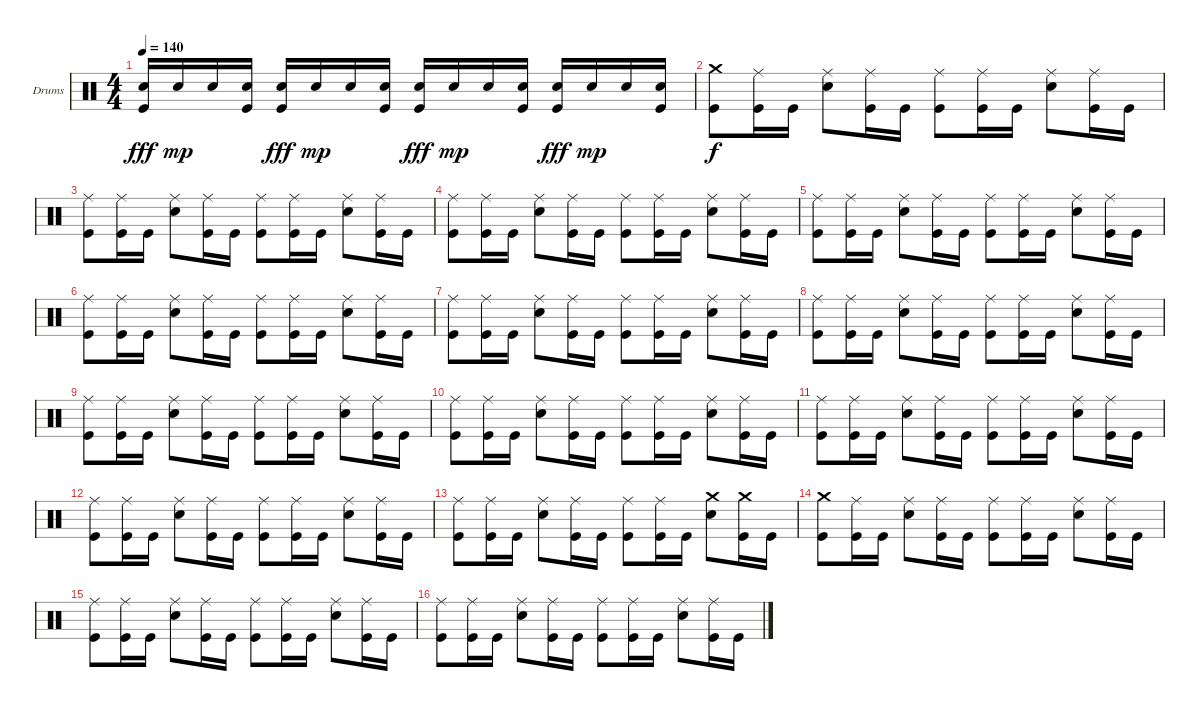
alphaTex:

\defaultSystemsLayout 4
\bracketExtendMode nobrackets
\firstSystemTrackNameOrientation horizontal
\otherSystemsTrackNameOrientation horizontal
\track ("Ударные" "Drums") {instrument percussion}
\staff {score}
\articulation defaults
\ts (4 4)
\tempo 140
\clef neutral
\ks c
("Snare (hit) 2" "Kick (hit)").16{dy fff} "Snare (hit) 2".16{dy mp} "Snare (hit) 2".16 ("Snare (hit) 2" "Kick (hit)").16 ("Snare (hit) 2" "Kick (hit)").16{dy fff} "Snare (hit) 2".16{dy mp} "Snare (hit) 2".16 ("Snare (hit) 2" "Kick (hit)").16 ("Snare (hit) 2" "Kick (hit)").16{dy fff} "Snare (hit) 2".16{dy mp} "Snare (hit) 2".16 ("Snare (hit) 2" "Kick (hit)").16 ("Snare (hit) 2" "Kick (hit)").16{dy fff} "Snare (hit) 2".16{dy mp} "Snare (hit) 2".16 ("Snare (hit) 2" "Kick (hit)").16 |
("Crash medium (hit)" "Kick (hit)").8{dy f} ("Ride (middle)" "Kick (hit)").16 "Kick (hit)".16 ("Ride (middle)" "Snare (hit) 2").8 ("Ride (middle)" "Kick (hit)").16 "Kick (hit)".16 ("Ride (middle)" "Kick (hit)").8 ("Ride (middle)" "Kick (hit)").16 "Kick (hit)".16 ("Ride (middle)" "Snare (hit) 2").8 ("Ride (middle)" "Kick (hit)").16 "Kick (hit)".16 |
("Ride (middle)" "Kick (hit)").8 ("Ride (middle)" "Kick (hit)").16 "Kick (hit)".16 ("Ride (middle)" "Snare (hit) 2").8 ("Ride (middle)" "Kick (hit)").16 "Kick (hit)".16 ("Ride (middle)" "Kick (hit)").8 ("Ride (middle)" "Kick (hit)").16 "Kick (hit)".16 ("Ride (middle)" "Snare (hit) 2").8 ("Ride (middle)" "Kick (hit)").16 "Kick (hit)".16 |
("Ride (middle)" "Kick (hit)").8 ("Ride (middle)" "Kick (hit)").16 "Kick (hit)".16 ("Ride (middle)" "Snare (hit) 2").8 ("Ride (middle)" "Kick (hit)").16 "Kick (hit)".16 ("Ride (middle)" "Kick (hit)").8 ("Ride (middle)" "Kick (hit)").16 "Kick (hit)".16 ("Ride (middle)" "Snare (hit) 2").8 ("Ride (middle)" "Kick (hit)").16 "Kick (hit)".16 |
("Ride (middle)" "Kick (hit)").8 ("Ride (middle)" "Kick (hit)").16 "Kick (hit)".16 ("Ride (middle)" "Snare (hit) 2").8 ("Ride (middle)" "Kick (hit)").16 "Kick (hit)".16 ("Ride (middle)" "Kick (hit)").8 ("Ride (middle)" "Kick (hit)").16 "Kick (hit)".16 ("Ride (middle)" "Snare (hit) 2").8 ("Ride (middle)" "Kick (hit)").16 "Kick (hit)".16 |
("Ride (middle)" "Kick (hit)").8 ("Ride (middle)" "Kick (hit)").16 "Kick (hit)".16 ("Ride (middle)" "Snare (hit) 2").8 ("Ride (middle)" "Kick (hit)").16 "Kick (hit)".16 ("Ride (middle)" "Kick (hit)").8 ("Ride (middle)" "Kick (hit)").16 "Kick (hit)".16 ("Ride (middle)" "Snare (hit) 2").8 ("Ride (middle)" "Kick (hit)").16 "Kick (hit)".16 |
("Ride (middle)" "Kick (hit)").8 ("Ride (middle)" "Kick (hit)").16 "Kick (hit)".16 ("Ride (middle)" "Snare (hit) 2").8 ("Ride (middle)" "Kick (hit)").16 "Kick (hit)".16 ("Ride (middle)" "Kick (hit)").8 ("Ride (middle)" "Kick (hit)").16 "Kick (hit)".16 ("Ride (middle)" "Snare (hit) 2").8 ("Ride (middle)" "Kick (hit)").16 "Kick (hit)".16 |
("Ride (middle)" "Kick (hit)").8 ("Ride (middle)" "Kick (hit)").16 "Kick (hit)".16 ("Ride (middle)" "Snare (hit) 2").8 ("Ride (middle)" "Kick (hit)").16 "Kick (hit)".16 ("Ride (middle)" "Kick (hit)").8 ("Ride (middle)" "Kick (hit)").16 "Kick (hit)".16 ("Ride (middle)" "Snare (hit) 2").8 ("Ride (middle)" "Kick (hit)").16 "Kick (hit)".16 |
("Ride (middle)" "Kick (hit)").8 ("Ride (middle)" "Kick (hit)").16 "Kick (hit)".16 ("Ride (middle)" "Snare (hit) 2").8 ("Ride (middle)" "Kick (hit)").16 "Kick (hit)".16 ("Ride (middle)" "Kick (hit)").8 ("Ride (middle)" "Kick (hit)").16 "Kick (hit)".16 ("Ride (middle)" "Snare (hit) 2").8 ("Ride (middle)" "Kick (hit)").16 "Kick (hit)".16 |
("Ride (middle)" "Kick (hit)").8 ("Ride (middle)" "Kick (hit)").16 "Kick (hit)".16 ("Ride (middle)" "Snare (hit) 2").8 ("Ride (middle)" "Kick (hit)").16 "Kick (hit)".16 ("Ride (middle)" "Kick (hit)").8 ("Ride (middle)" "Kick (hit)").16 "Kick (hit)".16 ("Ride (middle)" "Snare (hit) 2").8 ("Ride (middle)" "Kick (hit)").16 "Kick (hit)".16 |
("Ride (middle)" "Kick (hit)").8 ("Ride (middle)" "Kick (hit)").16 "Kick (hit)".16 ("Ride (middle)" "Snare (hit) 2").8 ("Ride (middle)" "Kick (hit)").16 "Kick (hit)".16 ("Ride (middle)" "Kick (hit)").8 ("Ride (middle)" "Kick (hit)").16 "Kick (hit)".16 ("Ride (middle)" "Snare (hit) 2").8 ("Ride (middle)" "Kick (hit)").16 "Kick (hit)".16 |
("Ride (middle)" "Kick (hit)").8 ("Ride (middle)" "Kick (hit)").16 "Kick (hit)".16 ("Ride (middle)" "Snare (hit) 2").8 ("Ride (middle)" "Kick (hit)").16 "Kick (hit)".16 ("Ride (middle)" "Kick (hit)").8 ("Ride (middle)" "Kick (hit)").16 "Kick (hit)".16 ("Ride (middle)" "Snare (hit) 2").8 ("Ride (middle)" "Kick (hit)").16 "Kick (hit)".16 |
("Ride (middle)" "Kick (hit)").8 ("Ride (middle)" "Kick (hit)").16 "Kick (hit)".16 ("Ride (middle)" "Snare (hit) 2").8 ("Ride (middle)" "Kick (hit)").16 "Kick (hit)".16 ("Ride (middle)" "Kick (hit)").8 ("Ride (middle)" "Kick (hit)").16 "Kick (hit)".16 ("Crash medium (hit)" "Snare (hit) 2").8 ("Crash medium (hit)" "Kick (hit)").16 "Kick (hit)".16 |
("Crash medium (hit)" "Kick (hit)").8 ("Ride (middle)" "Kick (hit)").16 "Kick (hit)".16 ("Ride (middle)" "Snare (hit) 2").8 ("Ride (middle)" "Kick (hit)").16 "Kick (hit)".16 ("Ride (middle)" "Kick (hit)").8 ("Ride (middle)" "Kick (hit)").16 "Kick (hit)".16 ("Ride (middle)" "Snare (hit) 2").8 ("Ride (middle)" "Kick (hit)").16 "Kick (hit)".16 |
("Ride (middle)" "Kick (hit)").8 ("Ride (middle)" "Kick (hit)").16 "Kick (hit)".16 ("Ride (middle)" "Snare (hit) 2").8 ("Ride (middle)" "Kick (hit)").16 "Kick (hit)".16 ("Ride (middle)" "Kick (hit)").8 ("Ride (middle)" "Kick (hit)").16 "Kick (hit)".16 ("Ride (middle)" "Snare (hit) 2").8 ("Ride (middle)" "Kick (hit)").16 "Kick (hit)".16 |
("Ride (middle)" "Kick (hit)").8 ("Ride (middle)" "Kick (hit)").16 "Kick (hit)".16 ("Ride (middle)" "Snare (hit) 2").8 ("Ride (middle)" "Kick (hit)").16 "Kick (hit)".16 ("Ride (middle)" "Kick (hit)").8 ("Ride (middle)" "Kick (hit)").16 "Kick (hit)".16 ("Ride (middle)" "Snare (hit) 2").8 ("Ride (middle)" "Kick (hit)").16 "Kick (hit)".16
